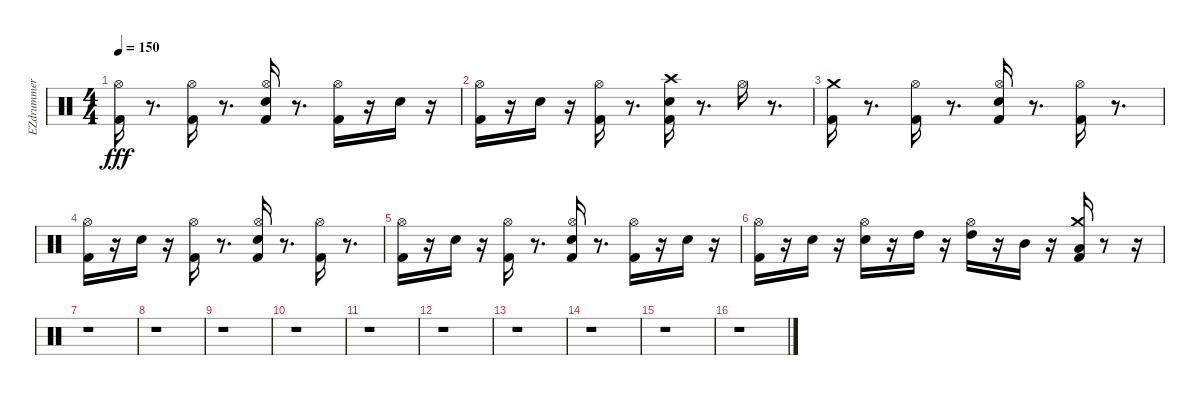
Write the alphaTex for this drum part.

\track ("EZdrummer 01" "EZdrummer ") {instrument percussion}
\staff {score}
\articulation defaults
\ts (4 4)
\tempo 150
\clef neutral
\ks c
("Kick (hit) 2" "Hi-Hat (open)").16{dy fff} r.8{d} ("Kick (hit) 2" "Hi-Hat (open)").16 r.8{d} ("Kick (hit) 2" "Electric Snare (hit)" "Hi-Hat (open)").16 r.8{d} ("Kick (hit) 2" "Hi-Hat (open)").16 r.16 "Electric Snare (hit)".16 r.16 |
("Kick (hit) 2" "Hi-Hat (open)").16 r.16 "Electric Snare (hit)".16 r.16 ("Kick (hit) 2" "Hi-Hat (open)").16 r.8{d} ("Kick (hit) 2" "Electric Snare (hit)" "Crash high (hit)").16 r.8{d} "Hi-Hat (open)".16 r.8{d} |
("Kick (hit) 2" "Crash medium (hit)").16 r.8{d} ("Kick (hit) 2" "Hi-Hat (open)").16 r.8{d} ("Kick (hit) 2" "Electric Snare (hit)" "Hi-Hat (open)").16 r.8{d} ("Kick (hit) 2" "Hi-Hat (open)").16 r.8{d} |
("Kick (hit) 2" "Hi-Hat (open)").16 r.16 "Electric Snare (hit)".16 r.16 ("Kick (hit) 2" "Hi-Hat (open)").16 r.8{d} ("Kick (hit) 2" "Electric Snare (hit)" "Hi-Hat (open)").16 r.8{d} ("Kick (hit) 2" "Hi-Hat (open)").16 r.8{d} |
("Kick (hit) 2" "Hi-Hat (open)").16 r.16 "Electric Snare (hit)".16 r.16 ("Kick (hit) 2" "Hi-Hat (open)").16 r.8{d} ("Kick (hit) 2" "Electric Snare (hit)" "Hi-Hat (open)").16 r.8{d} ("Kick (hit) 2" "Hi-Hat (open)").16 r.16 "Electric Snare (hit)".16 r.16 |
("Kick (hit) 2" "Hi-Hat (open)").16 r.16 "Electric Snare (hit)".16 r.16 ("Electric Snare (hit)" "Hi-Hat (open)").16 r.16 "High Tom (hit)".16 r.16 ("Hi-Hat (open)" "High Tom (hit)").16 r.16 "Mid Tom (hit)".16 r.16 ("Kick (hit) 2" "Low Tom (hit)" "Crash medium (hit)").16 r.8 r.16 |
r.1 |
r.1 |
r.1 |
r.1 |
r.1 |
r.1 |
r.1 |
r.1 |
r.1 |
r.1
